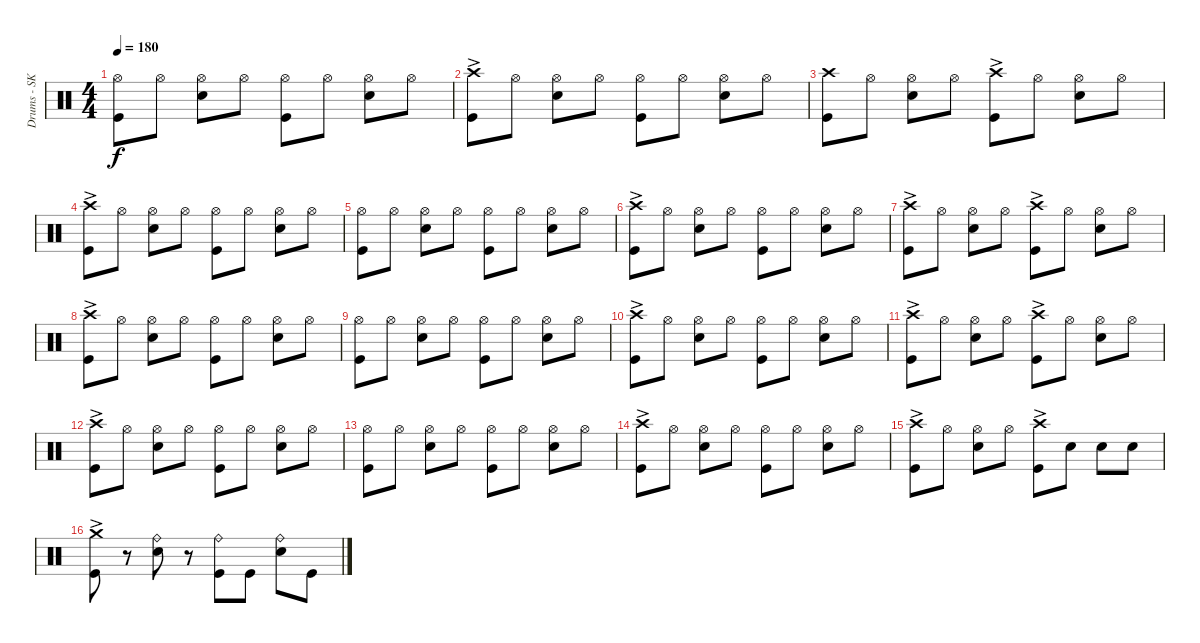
\track ("Drums - SK" "Drums - SK") {instrument percussion}
\staff {score}
\articulation defaults
\ts (4 4)
\tempo 180
\clef neutral
\ks c
("Hi-Hat (open)" "Kick (hit)").8{dy f} "Hi-Hat (open)".8 ("Hi-Hat (open)" "Snare (hit) 2").8 "Hi-Hat (open)".8 ("Hi-Hat (open)" "Kick (hit)").8 "Hi-Hat (open)".8 ("Hi-Hat (open)" "Snare (hit) 2").8 "Hi-Hat (open)".8 |
("Kick (hit)"{ac} "Crash high (hit)"{ac}).8 "Hi-Hat (open)".8 ("Hi-Hat (open)" "Snare (hit) 2").8 "Hi-Hat (open)".8 ("Hi-Hat (open)" "Kick (hit)").8 "Hi-Hat (open)".8 ("Hi-Hat (open)" "Snare (hit) 2").8 "Hi-Hat (open)".8 |
("Kick (hit)" "Crash high (hit)").8 "Hi-Hat (open)".8 ("Hi-Hat (open)" "Snare (hit) 2").8 "Hi-Hat (open)".8 ("Crash high (hit)"{ac} "Kick (hit)"{ac}).8 "Hi-Hat (open)".8 ("Hi-Hat (open)" "Snare (hit) 2").8 "Hi-Hat (open)".8 |
("Crash high (hit)"{ac} "Kick (hit)"{ac}).8 "Hi-Hat (open)".8 ("Hi-Hat (open)" "Snare (hit) 2").8 "Hi-Hat (open)".8 ("Hi-Hat (open)" "Kick (hit)").8 "Hi-Hat (open)".8 ("Hi-Hat (open)" "Snare (hit) 2").8 "Hi-Hat (open)".8 |
("Hi-Hat (open)" "Kick (hit)").8 "Hi-Hat (open)".8 ("Hi-Hat (open)" "Snare (hit) 2").8 "Hi-Hat (open)".8 ("Hi-Hat (open)" "Kick (hit)").8 "Hi-Hat (open)".8 ("Hi-Hat (open)" "Snare (hit) 2").8 "Hi-Hat (open)".8 |
("Crash high (hit)"{ac} "Kick (hit)"{ac}).8 "Hi-Hat (open)".8 ("Hi-Hat (open)" "Snare (hit) 2").8 "Hi-Hat (open)".8 ("Hi-Hat (open)" "Kick (hit)").8 "Hi-Hat (open)".8 ("Hi-Hat (open)" "Snare (hit) 2").8 "Hi-Hat (open)".8 |
("Crash high (hit)"{ac} "Kick (hit)"{ac}).8 "Hi-Hat (open)".8 ("Hi-Hat (open)" "Snare (hit) 2").8 "Hi-Hat (open)".8 ("Crash high (hit)"{ac} "Kick (hit)"{ac}).8 "Hi-Hat (open)".8 ("Hi-Hat (open)" "Snare (hit) 2").8 "Hi-Hat (open)".8 |
("Crash high (hit)"{ac} "Kick (hit)"{ac}).8 "Hi-Hat (open)".8 ("Hi-Hat (open)" "Snare (hit) 2").8 "Hi-Hat (open)".8 ("Hi-Hat (open)" "Kick (hit)").8 "Hi-Hat (open)".8 ("Hi-Hat (open)" "Snare (hit) 2").8 "Hi-Hat (open)".8 |
("Hi-Hat (open)" "Kick (hit)").8 "Hi-Hat (open)".8 ("Hi-Hat (open)" "Snare (hit) 2").8 "Hi-Hat (open)".8 ("Hi-Hat (open)" "Kick (hit)").8 "Hi-Hat (open)".8 ("Hi-Hat (open)" "Snare (hit) 2").8 "Hi-Hat (open)".8 |
("Crash high (hit)"{ac} "Kick (hit)"{ac}).8 "Hi-Hat (open)".8 ("Hi-Hat (open)" "Snare (hit) 2").8 "Hi-Hat (open)".8 ("Hi-Hat (open)" "Kick (hit)").8 "Hi-Hat (open)".8 ("Hi-Hat (open)" "Snare (hit) 2").8 "Hi-Hat (open)".8 |
("Crash high (hit)"{ac} "Kick (hit)"{ac}).8 "Hi-Hat (open)".8 ("Hi-Hat (open)" "Snare (hit) 2").8 "Hi-Hat (open)".8 ("Crash high (hit)"{ac} "Kick (hit)"{ac}).8 "Hi-Hat (open)".8 ("Hi-Hat (open)" "Snare (hit) 2").8 "Hi-Hat (open)".8 |
("Crash high (hit)"{ac} "Kick (hit)"{ac}).8 "Hi-Hat (open)".8 ("Hi-Hat (open)" "Snare (hit) 2").8 "Hi-Hat (open)".8 ("Kick (hit)" "Hi-Hat (open)").8 "Hi-Hat (open)".8 ("Hi-Hat (open)" "Snare (hit) 2").8 "Hi-Hat (open)".8 |
("Hi-Hat (open)" "Kick (hit)").8 "Hi-Hat (open)".8 ("Hi-Hat (open)" "Snare (hit) 2").8 "Hi-Hat (open)".8 ("Hi-Hat (open)" "Kick (hit)").8 "Hi-Hat (open)".8 ("Hi-Hat (open)" "Snare (hit) 2").8 "Hi-Hat (open)".8 |
("Crash high (hit)"{ac} "Kick (hit)"{ac}).8 "Hi-Hat (open)".8 ("Hi-Hat (open)" "Snare (hit) 2").8 "Hi-Hat (open)".8 ("Hi-Hat (open)" "Kick (hit)").8 "Hi-Hat (open)".8 ("Hi-Hat (open)" "Snare (hit) 2").8 "Hi-Hat (open)".8 |
("Crash high (hit)"{ac} "Kick (hit)"{ac}).8 "Hi-Hat (open)".8 ("Hi-Hat (open)" "Snare (hit) 2").8 "Hi-Hat (open)".8 ("Crash high (hit)"{ac} "Kick (hit)"{ac}).8 "Snare (hit) 2".8 "Snare (hit) 2".8 "Snare (hit) 2".8 |
("Crash medium (hit)"{ac} "Kick (hit)"{ac}).8 r.8 ("Ride (bell)" "Snare (hit) 2").8 r.8 ("Ride (bell)" "Kick (hit)").8 "Kick (hit)".8 ("Ride (bell)" "Snare (hit) 2").8 "Kick (hit)".8
